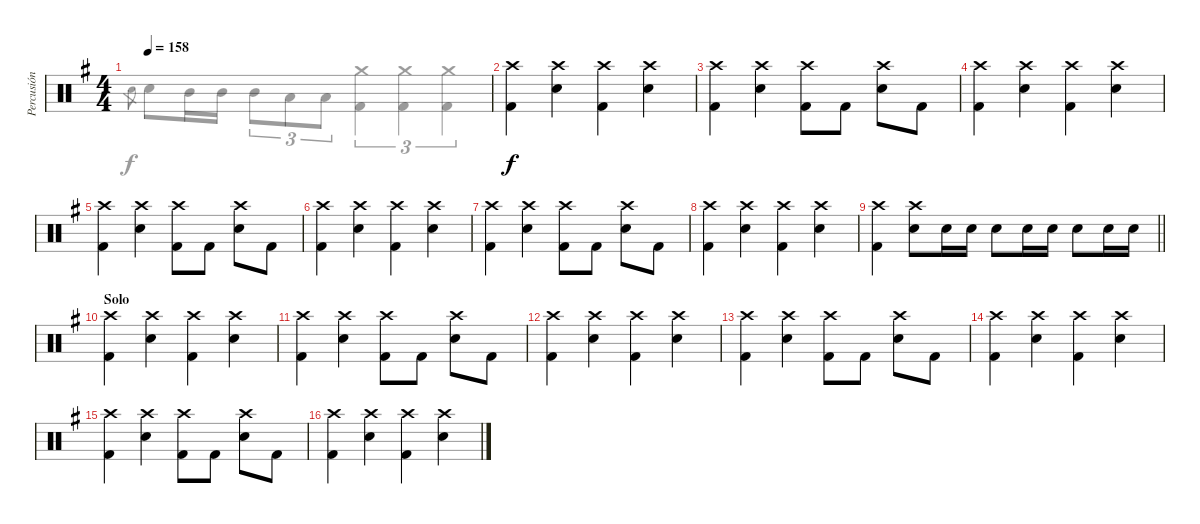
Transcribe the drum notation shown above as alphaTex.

\track ("Percusión" "Percusión") {instrument percussion}
\staff {score}
\articulation defaults
\voice
\ts (4 4)
\tempo 158
\clef neutral
\ks g
|
("Crash high (hit)" "Kick (hit) 2").4 ("Crash high (hit)" "Snare (hit) 2").4 ("Crash high (hit)" "Kick (hit) 2").4 ("Crash high (hit)" "Snare (hit) 2").4 |
("Crash high (hit)" "Kick (hit) 2").4 ("Crash high (hit)" "Snare (hit) 2").4 ("Crash high (hit)" "Kick (hit) 2").8 "Kick (hit) 2".8 ("Crash high (hit)" "Snare (hit) 2").8 "Kick (hit) 2".8 |
("Crash high (hit)" "Kick (hit) 2").4 ("Crash high (hit)" "Snare (hit) 2").4 ("Crash high (hit)" "Kick (hit) 2").4 ("Crash high (hit)" "Snare (hit) 2").4 |
("Crash high (hit)" "Kick (hit) 2").4 ("Crash high (hit)" "Snare (hit) 2").4 ("Crash high (hit)" "Kick (hit) 2").8 "Kick (hit) 2".8 ("Crash high (hit)" "Snare (hit) 2").8 "Kick (hit) 2".8 |
("Crash high (hit)" "Kick (hit) 2").4 ("Crash high (hit)" "Snare (hit) 2").4 ("Crash high (hit)" "Kick (hit) 2").4 ("Crash high (hit)" "Snare (hit) 2").4 |
("Crash high (hit)" "Kick (hit) 2").4 ("Crash high (hit)" "Snare (hit) 2").4 ("Crash high (hit)" "Kick (hit) 2").8 "Kick (hit) 2".8 ("Crash high (hit)" "Snare (hit) 2").8 "Kick (hit) 2".8 |
("Crash high (hit)" "Kick (hit) 2").4 ("Crash high (hit)" "Snare (hit) 2").4 ("Crash high (hit)" "Kick (hit) 2").4 ("Crash high (hit)" "Snare (hit) 2").4 |
\barLineRight lightlight
("Crash high (hit)" "Kick (hit) 2").4 ("Crash high (hit)" "Snare (hit) 2").8 "Snare (hit) 2".16 "Snare (hit) 2".16 "Snare (hit) 2".8 "Snare (hit) 2".16 "Snare (hit) 2".16 "Snare (hit) 2".8 "Snare (hit) 2".16 "Snare (hit) 2".16 |
\section ("" "Solo")
("Crash high (hit)" "Kick (hit) 2").4 ("Crash high (hit)" "Snare (hit) 2").4 ("Crash high (hit)" "Kick (hit) 2").4 ("Crash high (hit)" "Snare (hit) 2").4 |
("Crash high (hit)" "Kick (hit) 2").4 ("Crash high (hit)" "Snare (hit) 2").4 ("Crash high (hit)" "Kick (hit) 2").8 "Kick (hit) 2".8 ("Crash high (hit)" "Snare (hit) 2").8 "Kick (hit) 2".8 |
("Crash high (hit)" "Kick (hit) 2").4 ("Crash high (hit)" "Snare (hit) 2").4 ("Crash high (hit)" "Kick (hit) 2").4 ("Crash high (hit)" "Snare (hit) 2").4 |
("Crash high (hit)" "Kick (hit) 2").4 ("Crash high (hit)" "Snare (hit) 2").4 ("Crash high (hit)" "Kick (hit) 2").8 "Kick (hit) 2".8 ("Crash high (hit)" "Snare (hit) 2").8 "Kick (hit) 2".8 |
("Crash high (hit)" "Kick (hit) 2").4 ("Crash high (hit)" "Snare (hit) 2").4 ("Crash high (hit)" "Kick (hit) 2").4 ("Crash high (hit)" "Snare (hit) 2").4 |
("Crash high (hit)" "Kick (hit) 2").4 ("Crash high (hit)" "Snare (hit) 2").4 ("Crash high (hit)" "Kick (hit) 2").8 "Kick (hit) 2".8 ("Crash high (hit)" "Snare (hit) 2").8 "Kick (hit) 2".8 |
("Crash high (hit)" "Kick (hit) 2").4 ("Crash high (hit)" "Snare (hit) 2").4 ("Crash high (hit)" "Kick (hit) 2").4 ("Crash high (hit)" "Snare (hit) 2").4
\voice
\clef neutral
\ottava regular
\simile none
\ks g "Snare (hit) 2".8{gr dy f} "Snare (hit) 2".8 "Mid Tom (hit)".16 "Mid Tom (hit)".16 "Mid Tom (hit)".8{tu (3 2)} "Low Tom (hit)".8{tu (3 2)} "Low Tom (hit)".8{tu (3 2)}
("Crash medium (hit)" "Kick (hit) 2").4{tu (3 2)} ("Crash medium (hit)" "Kick (hit) 2").4{tu (3 2)} ("Crash medium (hit)" "Kick (hit) 2").4{tu (3 2)} |
|
|
|
|
|
|
|
\barLineRight lightlight
|
|
|
|
|
|
|
